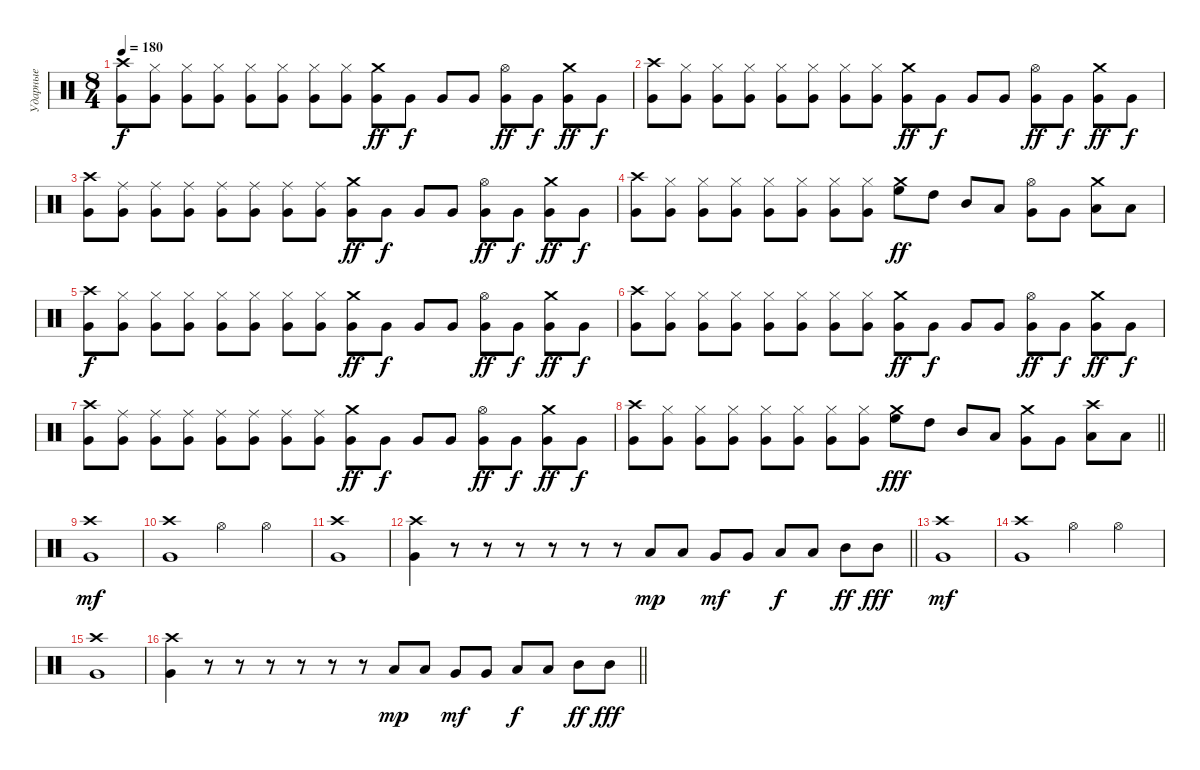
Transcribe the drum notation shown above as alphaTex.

\track ("Ударные" "Ударные") {instrument percussion}
\staff {score}
\articulation defaults
\ts (8 4)
\tempo 180
\clef neutral
\ks c
("Crash high (hit)" "Very Low Tom (hit)").8{dy f} ("Hi-Hat (closed)" "Very Low Tom (hit)").8 ("Hi-Hat (closed)" "Very Low Tom (hit)").8 ("Hi-Hat (closed)" "Very Low Tom (hit)").8 ("Hi-Hat (closed)" "Very Low Tom (hit)").8 ("Hi-Hat (closed)" "Very Low Tom (hit)").8 ("Hi-Hat (closed)" "Very Low Tom (hit)").8 ("Hi-Hat (closed)" "Very Low Tom (hit)").8 ("Crash medium (hit)" "Very Low Tom (hit)").8{dy ff} "Very Low Tom (hit)".8{dy f} "Very Low Tom (hit)".8 "Very Low Tom (hit)".8 ("Hi-Hat (open)" "Very Low Tom (hit)").8{dy ff} "Very Low Tom (hit)".8{dy f} ("Crash medium (hit)" "Very Low Tom (hit)").8{dy ff} "Very Low Tom (hit)".8{dy f} |
("Crash high (hit)" "Very Low Tom (hit)").8 ("Hi-Hat (closed)" "Very Low Tom (hit)").8 ("Hi-Hat (closed)" "Very Low Tom (hit)").8 ("Hi-Hat (closed)" "Very Low Tom (hit)").8 ("Hi-Hat (closed)" "Very Low Tom (hit)").8 ("Hi-Hat (closed)" "Very Low Tom (hit)").8 ("Hi-Hat (closed)" "Very Low Tom (hit)").8 ("Hi-Hat (closed)" "Very Low Tom (hit)").8 ("Crash medium (hit)" "Very Low Tom (hit)").8{dy ff} "Very Low Tom (hit)".8{dy f} "Very Low Tom (hit)".8 "Very Low Tom (hit)".8 ("Hi-Hat (open)" "Very Low Tom (hit)").8{dy ff} "Very Low Tom (hit)".8{dy f} ("Crash medium (hit)" "Very Low Tom (hit)").8{dy ff} "Very Low Tom (hit)".8{dy f} |
("Crash high (hit)" "Very Low Tom (hit)").8 ("Ride (middle)" "Very Low Tom (hit)").8 ("Ride (middle)" "Very Low Tom (hit)").8 ("Ride (middle)" "Very Low Tom (hit)").8 ("Ride (middle)" "Very Low Tom (hit)").8 ("Ride (middle)" "Very Low Tom (hit)").8 ("Ride (middle)" "Very Low Tom (hit)").8 ("Ride (middle)" "Very Low Tom (hit)").8 ("Crash medium (hit)" "Very Low Tom (hit)").8{dy ff} "Very Low Tom (hit)".8{dy f} "Very Low Tom (hit)".8 "Very Low Tom (hit)".8 ("Hi-Hat (open)" "Very Low Tom (hit)").8{dy ff} "Very Low Tom (hit)".8{dy f} ("Crash medium (hit)" "Very Low Tom (hit)").8{dy ff} "Very Low Tom (hit)".8{dy f} |
("Crash high (hit)" "Very Low Tom (hit)").8 ("Hi-Hat (closed)" "Very Low Tom (hit)").8 ("Hi-Hat (closed)" "Very Low Tom (hit)").8 ("Hi-Hat (closed)" "Very Low Tom (hit)").8 ("Hi-Hat (closed)" "Very Low Tom (hit)").8 ("Hi-Hat (closed)" "Very Low Tom (hit)").8 ("Hi-Hat (closed)" "Very Low Tom (hit)").8 ("Hi-Hat (closed)" "Very Low Tom (hit)").8 ("Crash medium (hit)" "High Floor Tom (hit)").8{dy ff} "High Tom (hit)".8 "Mid Tom (hit)".8 "Low Tom (hit)".8 ("Hi-Hat (open)" "Very Low Tom (hit)").8 "Very Low Tom (hit)".8 ("Crash medium (hit)" "Low Floor Tom (hit)").8 "Low Floor Tom (hit)".8 |
("Crash high (hit)" "Very Low Tom (hit)").8{dy f} ("Hi-Hat (closed)" "Very Low Tom (hit)").8 ("Hi-Hat (closed)" "Very Low Tom (hit)").8 ("Hi-Hat (closed)" "Very Low Tom (hit)").8 ("Hi-Hat (closed)" "Very Low Tom (hit)").8 ("Hi-Hat (closed)" "Very Low Tom (hit)").8 ("Hi-Hat (closed)" "Very Low Tom (hit)").8 ("Hi-Hat (closed)" "Very Low Tom (hit)").8 ("Crash medium (hit)" "Very Low Tom (hit)").8{dy ff} "Very Low Tom (hit)".8{dy f} "Very Low Tom (hit)".8 "Very Low Tom (hit)".8 ("Hi-Hat (open)" "Very Low Tom (hit)").8{dy ff} "Very Low Tom (hit)".8{dy f} ("Crash medium (hit)" "Very Low Tom (hit)").8{dy ff} "Very Low Tom (hit)".8{dy f} |
("Crash high (hit)" "Very Low Tom (hit)").8 ("Hi-Hat (closed)" "Very Low Tom (hit)").8 ("Hi-Hat (closed)" "Very Low Tom (hit)").8 ("Hi-Hat (closed)" "Very Low Tom (hit)").8 ("Hi-Hat (closed)" "Very Low Tom (hit)").8 ("Hi-Hat (closed)" "Very Low Tom (hit)").8 ("Hi-Hat (closed)" "Very Low Tom (hit)").8 ("Hi-Hat (closed)" "Very Low Tom (hit)").8 ("Crash medium (hit)" "Very Low Tom (hit)").8{dy ff} "Very Low Tom (hit)".8{dy f} "Very Low Tom (hit)".8 "Very Low Tom (hit)".8 ("Hi-Hat (open)" "Very Low Tom (hit)").8{dy ff} "Very Low Tom (hit)".8{dy f} ("Crash medium (hit)" "Very Low Tom (hit)").8{dy ff} "Very Low Tom (hit)".8{dy f} |
("Crash high (hit)" "Very Low Tom (hit)").8 ("Ride (middle)" "Very Low Tom (hit)").8 ("Ride (middle)" "Very Low Tom (hit)").8 ("Ride (middle)" "Very Low Tom (hit)").8 ("Ride (middle)" "Very Low Tom (hit)").8 ("Ride (middle)" "Very Low Tom (hit)").8 ("Ride (middle)" "Very Low Tom (hit)").8 ("Ride (middle)" "Very Low Tom (hit)").8 ("Crash medium (hit)" "Very Low Tom (hit)").8{dy ff} "Very Low Tom (hit)".8{dy f} "Very Low Tom (hit)".8 "Very Low Tom (hit)".8 ("Hi-Hat (open)" "Very Low Tom (hit)").8{dy ff} "Very Low Tom (hit)".8{dy f} ("Crash medium (hit)" "Very Low Tom (hit)").8{dy ff} "Very Low Tom (hit)".8{dy f} |
\barLineRight lightlight
("Crash high (hit)" "Very Low Tom (hit)").8 ("Hi-Hat (closed)" "Very Low Tom (hit)").8 ("Hi-Hat (closed)" "Very Low Tom (hit)").8 ("Hi-Hat (closed)" "Very Low Tom (hit)").8 ("Hi-Hat (closed)" "Very Low Tom (hit)").8 ("Hi-Hat (closed)" "Very Low Tom (hit)").8 ("Hi-Hat (closed)" "Very Low Tom (hit)").8 ("Hi-Hat (closed)" "Very Low Tom (hit)").8 ("Crash medium (hit)" "High Floor Tom (hit)").8{dy fff} "High Tom (hit)".8 "Mid Tom (hit)".8 "Low Tom (hit)".8 ("Crash medium (hit)" "Very Low Tom (hit)").8 "Very Low Tom (hit)".8 ("Crash high (hit)" "Low Floor Tom (hit)").8 "Low Floor Tom (hit)".8 |
\section ("" "")
("Crash high (hit)" "Very Low Tom (hit)").1{dy mf} |
("Crash high (hit)" "Very Low Tom (hit)").1 "Hi-Hat (open)".2 "Hi-Hat (open)".2 |
("Crash high (hit)" "Very Low Tom (hit)").1 |
\barLineRight lightlight
("Crash high (hit)" "Very Low Tom (hit)").4 r.8 r.8 r.8 r.8 r.8 r.8 "Low Floor Tom (hit)".8{dy mp} "Low Floor Tom (hit)".8 "Very Low Tom (hit)".8{dy mf} "Very Low Tom (hit)".8 "Low Tom (hit)".8{dy f} "Low Tom (hit)".8 "Mid Tom (hit)".8{dy ff} "Mid Tom (hit)".8{dy fff} |
("Crash high (hit)" "Very Low Tom (hit)").1{dy mf} |
("Crash high (hit)" "Very Low Tom (hit)").1 "Hi-Hat (open)".2 "Hi-Hat (open)".2 |
("Crash high (hit)" "Very Low Tom (hit)").1 |
\barLineRight lightlight
("Crash high (hit)" "Very Low Tom (hit)").4 r.8 r.8 r.8 r.8 r.8 r.8 "Low Floor Tom (hit)".8{dy mp} "Low Floor Tom (hit)".8 "Very Low Tom (hit)".8{dy mf} "Very Low Tom (hit)".8 "Low Tom (hit)".8{dy f} "Low Tom (hit)".8 "Mid Tom (hit)".8{dy ff} "Mid Tom (hit)".8{dy fff}
